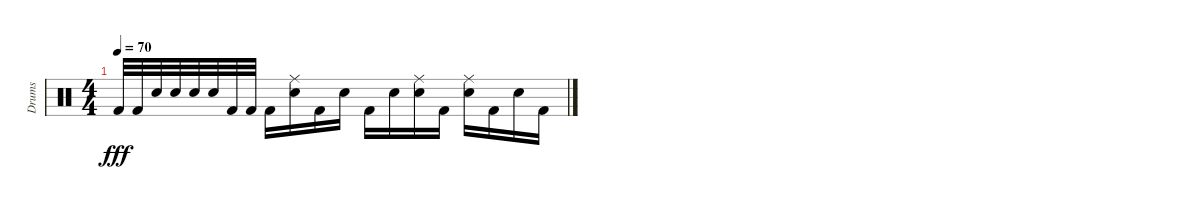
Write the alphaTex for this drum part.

\track ("Drums" "Drums") {instrument percussion}
\staff {score}
\articulation defaults
\ts (4 4)
\tempo 70
\clef neutral
\ks c "Kick (hit) 2".32{dy fff} "Kick (hit) 2".32 "Snare (hit) 2".32 "Snare (hit) 2".32 "Snare (hit) 2".32 "Snare (hit) 2".32 "Kick (hit) 2".32 "Kick (hit) 2".32 "Kick (hit) 2".16
("Ride (middle)" "Snare (hit) 2").16 "Kick (hit) 2".16 "Snare (hit) 2".16 "Kick (hit) 2".16 "Snare (hit) 2".16 ("Ride (middle)" "Snare (hit) 2").16 "Kick (hit) 2".16 ("Ride (middle)" "Snare (hit) 2").16 "Kick (hit) 2".16 "Snare (hit) 2".16 "Kick (hit) 2".16
